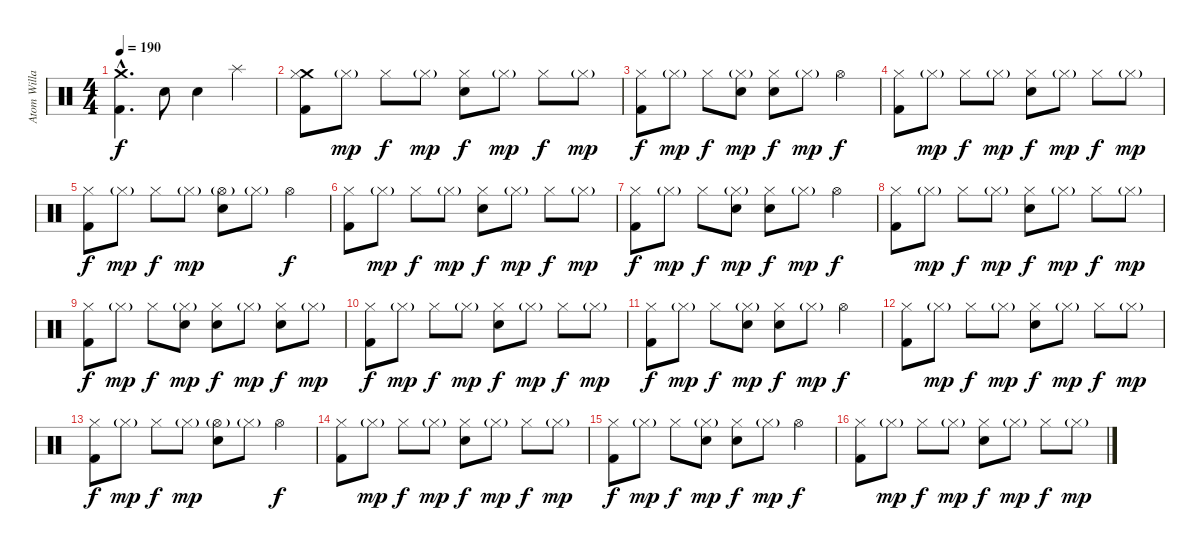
\track ("Atom Willard" "Atom Willa") {instrument percussion}
\staff {score}
\articulation defaults
\ts (4 4)
\tempo 190
\clef neutral
\ks c
("Crash medium (hit)"{hac} "Kick (hit) 2"{hac}).4{d dy f} "Electric Snare (hit)".8 "Electric Snare (hit)".4 "Splash (hit)".4 |
("Crash medium (hit)" "Hi-Hat (closed)" "Kick (hit) 2").8 "Hi-Hat (closed)"{g}.8{dy mp} "Hi-Hat (closed)".8{dy f} "Hi-Hat (closed)"{g}.8{dy mp} ("Hi-Hat (closed)" "Electric Snare (hit)").8{dy f} "Hi-Hat (closed)"{g}.8{dy mp} "Hi-Hat (closed)".8{dy f} "Hi-Hat (closed)"{g}.8{dy mp} |
("Hi-Hat (closed)" "Kick (hit) 2").8{dy f} "Hi-Hat (closed)"{g}.8{dy mp} "Hi-Hat (closed)".8{dy f} ("Hi-Hat (closed)"{g} "Electric Snare (hit)").8{dy mp} ("Hi-Hat (closed)" "Electric Snare (hit)").8{dy f} "Hi-Hat (closed)"{g}.8{dy mp} "Hi-Hat (open)".4{dy f} |
("Hi-Hat (closed)" "Kick (hit) 2").8 "Hi-Hat (closed)"{g}.8{dy mp} "Hi-Hat (closed)".8{dy f} "Hi-Hat (closed)"{g}.8{dy mp} ("Hi-Hat (closed)" "Electric Snare (hit)").8{dy f} "Hi-Hat (closed)"{g}.8{dy mp} "Hi-Hat (closed)".8{dy f} "Hi-Hat (closed)"{g}.8{dy mp} |
("Hi-Hat (closed)" "Kick (hit) 2").8{dy f} "Hi-Hat (closed)"{g}.8{dy mp} "Hi-Hat (closed)".8{dy f} "Hi-Hat (closed)"{g}.8{dy mp} ("Hi-Hat (open)"{g} "Electric Snare (hit)").8 "Hi-Hat (closed)"{g}.8 "Hi-Hat (open)".4{dy f} |
("Hi-Hat (closed)" "Kick (hit) 2").8 "Hi-Hat (closed)"{g}.8{dy mp} "Hi-Hat (closed)".8{dy f} "Hi-Hat (closed)"{g}.8{dy mp} ("Hi-Hat (closed)" "Electric Snare (hit)").8{dy f} "Hi-Hat (closed)"{g}.8{dy mp} "Hi-Hat (closed)".8{dy f} "Hi-Hat (closed)"{g}.8{dy mp} |
("Hi-Hat (closed)" "Kick (hit) 2").8{dy f} "Hi-Hat (closed)"{g}.8{dy mp} "Hi-Hat (closed)".8{dy f} ("Hi-Hat (closed)"{g} "Electric Snare (hit)").8{dy mp} ("Hi-Hat (closed)" "Electric Snare (hit)").8{dy f} "Hi-Hat (closed)"{g}.8{dy mp} "Hi-Hat (open)".4{dy f} |
("Hi-Hat (closed)" "Kick (hit) 2").8 "Hi-Hat (closed)"{g}.8{dy mp} "Hi-Hat (closed)".8{dy f} "Hi-Hat (closed)"{g}.8{dy mp} ("Hi-Hat (closed)" "Electric Snare (hit)").8{dy f} "Hi-Hat (closed)"{g}.8{dy mp} "Hi-Hat (closed)".8{dy f} "Hi-Hat (closed)"{g}.8{dy mp} |
("Hi-Hat (closed)" "Kick (hit) 2").8{dy f} "Hi-Hat (closed)"{g}.8{dy mp} "Hi-Hat (closed)".8{dy f} ("Hi-Hat (closed)"{g} "Electric Snare (hit)").8{dy mp} ("Hi-Hat (closed)" "Electric Snare (hit)").8{dy f} "Hi-Hat (closed)"{g}.8{dy mp} ("Hi-Hat (closed)" "Electric Snare (hit)").8{dy f} "Hi-Hat (closed)"{g}.8{dy mp} |
("Hi-Hat (closed)" "Kick (hit) 2").8{dy f} "Hi-Hat (closed)"{g}.8{dy mp} "Hi-Hat (closed)".8{dy f} "Hi-Hat (closed)"{g}.8{dy mp} ("Hi-Hat (closed)" "Electric Snare (hit)").8{dy f} "Hi-Hat (closed)"{g}.8{dy mp} "Hi-Hat (closed)".8{dy f} "Hi-Hat (closed)"{g}.8{dy mp} |
("Hi-Hat (closed)" "Kick (hit) 2").8{dy f} "Hi-Hat (closed)"{g}.8{dy mp} "Hi-Hat (closed)".8{dy f} ("Hi-Hat (closed)"{g} "Electric Snare (hit)").8{dy mp} ("Hi-Hat (closed)" "Electric Snare (hit)").8{dy f} "Hi-Hat (closed)"{g}.8{dy mp} "Hi-Hat (open)".4{dy f} |
("Hi-Hat (closed)" "Kick (hit) 2").8 "Hi-Hat (closed)"{g}.8{dy mp} "Hi-Hat (closed)".8{dy f} "Hi-Hat (closed)"{g}.8{dy mp} ("Hi-Hat (closed)" "Electric Snare (hit)").8{dy f} "Hi-Hat (closed)"{g}.8{dy mp} "Hi-Hat (closed)".8{dy f} "Hi-Hat (closed)"{g}.8{dy mp} |
("Hi-Hat (closed)" "Kick (hit) 2").8{dy f} "Hi-Hat (closed)"{g}.8{dy mp} "Hi-Hat (closed)".8{dy f} "Hi-Hat (closed)"{g}.8{dy mp} ("Hi-Hat (open)"{g} "Electric Snare (hit)").8 "Hi-Hat (closed)"{g}.8 "Hi-Hat (open)".4{dy f} |
("Hi-Hat (closed)" "Kick (hit) 2").8 "Hi-Hat (closed)"{g}.8{dy mp} "Hi-Hat (closed)".8{dy f} "Hi-Hat (closed)"{g}.8{dy mp} ("Hi-Hat (closed)" "Electric Snare (hit)").8{dy f} "Hi-Hat (closed)"{g}.8{dy mp} "Hi-Hat (closed)".8{dy f} "Hi-Hat (closed)"{g}.8{dy mp} |
("Hi-Hat (closed)" "Kick (hit) 2").8{dy f} "Hi-Hat (closed)"{g}.8{dy mp} "Hi-Hat (closed)".8{dy f} ("Hi-Hat (closed)"{g} "Electric Snare (hit)").8{dy mp} ("Hi-Hat (closed)" "Electric Snare (hit)").8{dy f} "Hi-Hat (closed)"{g}.8{dy mp} "Hi-Hat (open)".4{dy f} |
("Hi-Hat (closed)" "Kick (hit) 2").8 "Hi-Hat (closed)"{g}.8{dy mp} "Hi-Hat (closed)".8{dy f} "Hi-Hat (closed)"{g}.8{dy mp} ("Hi-Hat (closed)" "Electric Snare (hit)").8{dy f} "Hi-Hat (closed)"{g}.8{dy mp} "Hi-Hat (closed)".8{dy f} "Hi-Hat (closed)"{g}.8{dy mp}
